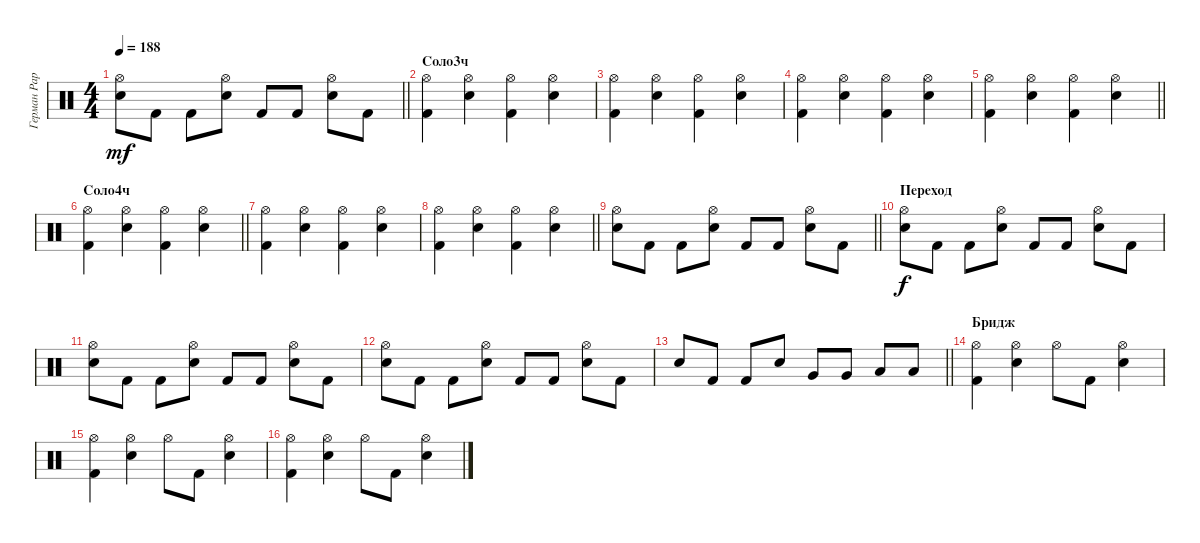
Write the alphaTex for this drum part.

\track ("Герман Раребелл, ударные" "Герман Рар") {instrument percussion}
\staff {score}
\articulation defaults
\ts (4 4)
\tempo 188
\clef neutral
\barLineRight lightlight
\ks c
("Hi-Hat (open)" "Snare (hit) 2").8{dy mf} "Kick (hit) 2".8 "Kick (hit) 2".8 ("Hi-Hat (open)" "Snare (hit) 2").8 "Kick (hit) 2".8 "Kick (hit) 2".8 ("Hi-Hat (open)" "Snare (hit) 2").8 "Kick (hit) 2".8 |
\section ("" "Соло3ч")
("Hi-Hat (open)" "Kick (hit) 2").4 ("Hi-Hat (open)" "Snare (hit) 2").4 ("Hi-Hat (open)" "Kick (hit) 2").4 ("Hi-Hat (open)" "Snare (hit) 2").4 |
("Hi-Hat (open)" "Kick (hit) 2").4 ("Hi-Hat (open)" "Snare (hit) 2").4 ("Hi-Hat (open)" "Kick (hit) 2").4 ("Hi-Hat (open)" "Snare (hit) 2").4 |
("Hi-Hat (open)" "Kick (hit) 2").4 ("Hi-Hat (open)" "Snare (hit) 2").4 ("Hi-Hat (open)" "Kick (hit) 2").4 ("Hi-Hat (open)" "Snare (hit) 2").4 |
\barLineRight lightlight
("Hi-Hat (open)" "Kick (hit) 2").4 ("Hi-Hat (open)" "Snare (hit) 2").4 ("Hi-Hat (open)" "Kick (hit) 2").4 ("Hi-Hat (open)" "Snare (hit) 2").4 |
\section ("" "Соло4ч")
\barLineRight lightlight
("Hi-Hat (open)" "Kick (hit) 2").4 ("Hi-Hat (open)" "Snare (hit) 2").4 ("Hi-Hat (open)" "Kick (hit) 2").4 ("Hi-Hat (open)" "Snare (hit) 2").4 |
("Hi-Hat (open)" "Kick (hit) 2").4 ("Hi-Hat (open)" "Snare (hit) 2").4 ("Hi-Hat (open)" "Kick (hit) 2").4 ("Hi-Hat (open)" "Snare (hit) 2").4 |
\barLineRight lightlight
("Hi-Hat (open)" "Kick (hit) 2").4 ("Hi-Hat (open)" "Snare (hit) 2").4 ("Hi-Hat (open)" "Kick (hit) 2").4 ("Hi-Hat (open)" "Snare (hit) 2").4 |
\barLineRight lightlight
("Hi-Hat (open)" "Snare (hit) 2").8 "Kick (hit) 2".8 "Kick (hit) 2".8 ("Hi-Hat (open)" "Snare (hit) 2").8 "Kick (hit) 2".8 "Kick (hit) 2".8 ("Hi-Hat (open)" "Snare (hit) 2").8 "Kick (hit) 2".8 |
\section ("" "Переход")
("Snare (hit) 2" "Hi-Hat (open)").8{dy f} "Kick (hit) 2".8 "Kick (hit) 2".8 ("Snare (hit) 2" "Hi-Hat (open)").8 "Kick (hit) 2".8 "Kick (hit) 2".8 ("Snare (hit) 2" "Hi-Hat (open)").8 "Kick (hit) 2".8 |
("Snare (hit) 2" "Hi-Hat (open)").8 "Kick (hit) 2".8 "Kick (hit) 2".8 ("Snare (hit) 2" "Hi-Hat (open)").8 "Kick (hit) 2".8 "Kick (hit) 2".8 ("Snare (hit) 2" "Hi-Hat (open)").8 "Kick (hit) 2".8 |
("Snare (hit) 2" "Hi-Hat (open)").8 "Kick (hit) 2".8 "Kick (hit) 2".8 ("Snare (hit) 2" "Hi-Hat (open)").8 "Kick (hit) 2".8 "Kick (hit) 2".8 ("Snare (hit) 2" "Hi-Hat (open)").8 "Kick (hit) 2".8 |
\barLineRight lightlight "Snare (hit) 2".8 "Kick (hit) 2".8 "Kick (hit) 2".8 "Snare (hit) 2".8 "Very Low Tom (hit)".8 "Very Low Tom (hit)".8 "Low Floor Tom (hit)".8 "Low Floor Tom (hit)".8
|
\section ("" "Бридж")
("Kick (hit) 2" "Hi-Hat (open)").4 ("Snare (hit) 2" "Hi-Hat (open)").4 "Hi-Hat (open)".8 "Kick (hit) 2".8 ("Snare (hit) 2" "Hi-Hat (open)").4 |
("Kick (hit) 2" "Hi-Hat (open)").4 ("Snare (hit) 2" "Hi-Hat (open)").4 "Hi-Hat (open)".8 "Kick (hit) 2".8 ("Snare (hit) 2" "Hi-Hat (open)").4 |
("Kick (hit) 2" "Hi-Hat (open)").4 ("Snare (hit) 2" "Hi-Hat (open)").4 "Hi-Hat (open)".8 "Kick (hit) 2".8 ("Snare (hit) 2" "Hi-Hat (open)").4
